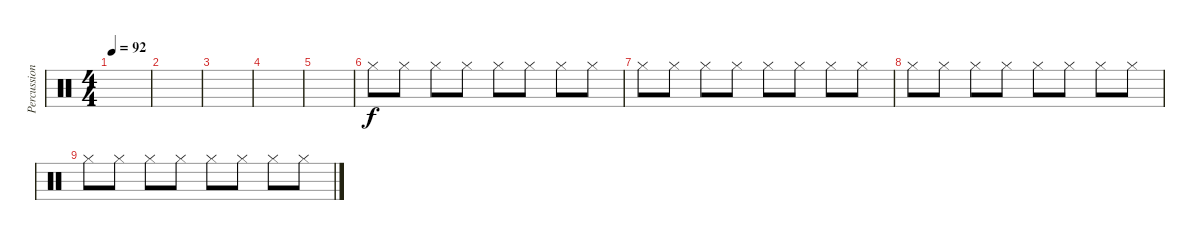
\track ("Percussion" "Percussion") {instrument percussion}
\staff {score}
\articulation defaults
\ts (4 4)
\tempo 92
\clef neutral
\ks c
|
|
|
|
|
"Hi-Hat (closed)".8 "Hi-Hat (closed)".8 "Hi-Hat (closed)".8 "Hi-Hat (closed)".8 "Hi-Hat (closed)".8 "Hi-Hat (closed)".8 "Hi-Hat (closed)".8 "Hi-Hat (closed)".8 |
"Hi-Hat (closed)".8 "Hi-Hat (closed)".8 "Hi-Hat (closed)".8 "Hi-Hat (closed)".8 "Hi-Hat (closed)".8 "Hi-Hat (closed)".8 "Hi-Hat (closed)".8 "Hi-Hat (closed)".8 |
"Hi-Hat (closed)".8 "Hi-Hat (closed)".8 "Hi-Hat (closed)".8 "Hi-Hat (closed)".8 "Hi-Hat (closed)".8 "Hi-Hat (closed)".8 "Hi-Hat (closed)".8 "Hi-Hat (closed)".8 |
"Hi-Hat (closed)".8 "Hi-Hat (closed)".8 "Hi-Hat (closed)".8 "Hi-Hat (closed)".8 "Hi-Hat (closed)".8 "Hi-Hat (closed)".8 "Hi-Hat (closed)".8 "Hi-Hat (closed)".8
